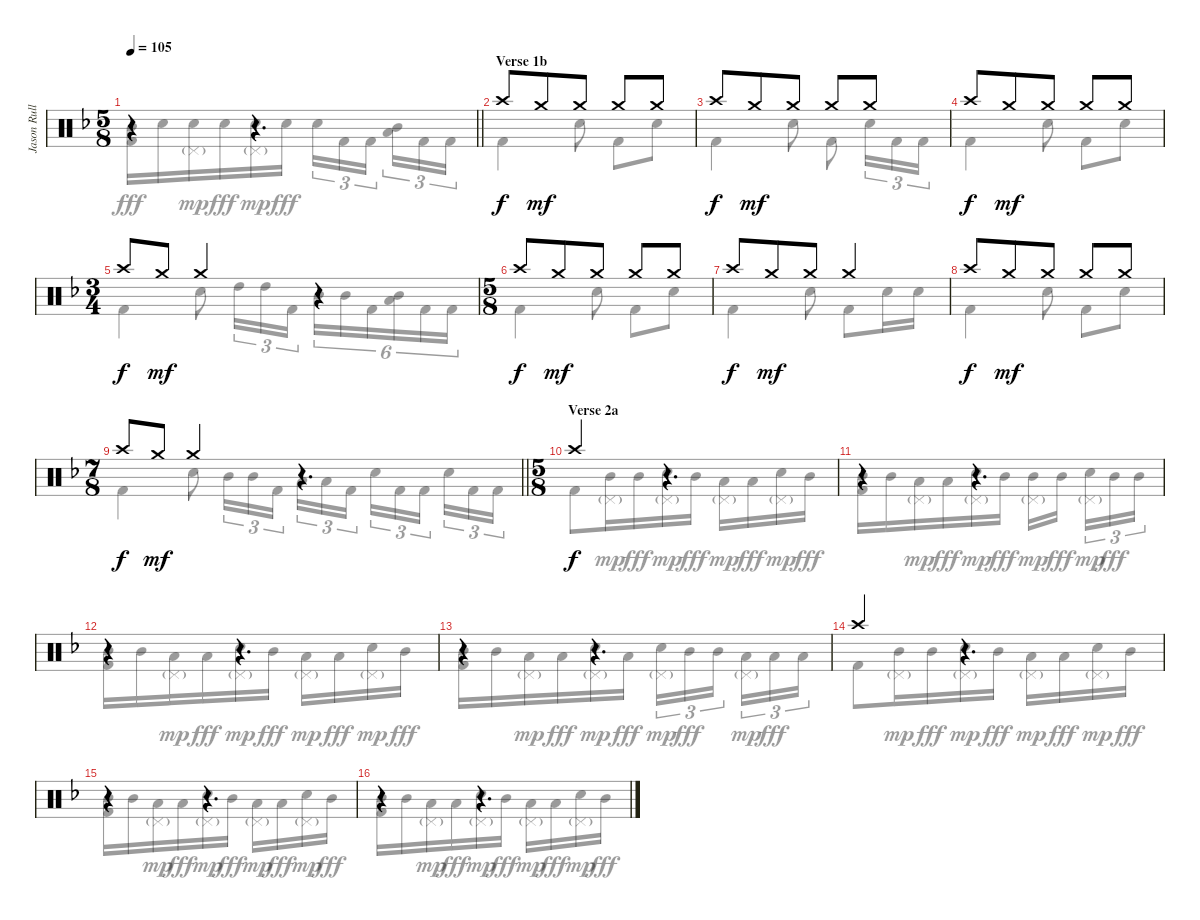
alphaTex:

\track ("Jason Rullo Drums" "Jason Rull") {instrument percussion}
\staff {score}
\articulation defaults
\voice
\ts (5 8)
\tempo 105
\clef neutral
\barLineRight lightlight
\ks dminor
r.4{dy f} r.4{d} |
\section ("" "Verse 1b")
"Crash high (hit)".8 "Crash medium (hit)".8{dy mf} "Crash medium (hit)".8 "Crash medium (hit)".8 "Crash medium (hit)".8 |
"Crash high (hit)".8{dy f} "Crash medium (hit)".8{dy mf} "Crash medium (hit)".8 "Crash medium (hit)".8 "Crash medium (hit)".8 |
"Crash high (hit)".8{dy f} "Crash medium (hit)".8{dy mf} "Crash medium (hit)".8 "Crash medium (hit)".8 "Crash medium (hit)".8 |
\ts (3 4)
"Crash high (hit)".8{dy f} "Crash medium (hit)".8{dy mf} "Crash medium (hit)".4 r.4 |
\ts (5 8)
"Crash high (hit)".8{dy f} "Crash medium (hit)".8{dy mf} "Crash medium (hit)".8 "Crash medium (hit)".8 "Crash medium (hit)".8 |
"Crash high (hit)".8{dy f} "Crash medium (hit)".8{dy mf} "Crash medium (hit)".8 "Crash medium (hit)".4 |
"Crash high (hit)".8{dy f} "Crash medium (hit)".8{dy mf} "Crash medium (hit)".8 "Crash medium (hit)".8 "Crash medium (hit)".8 |
\ts (7 8)
\barLineRight lightlight "Crash high (hit)".8{dy f} "Crash medium (hit)".8{dy mf} "Crash medium (hit)".4
r.4{d} |
\ts (5 8)
\section ("" "Verse 2a")
"Crash high (hit)".4{dy f} r.4{d} |
r.4 r.4{d} |
r.4 r.4{d} |
r.4 r.4{d} |
"Crash high (hit)".4 r.4{d} |
r.4 r.4{d} |
r.4 r.4{d}
\voice
\clef neutral
\ottava regular
\simile none
\barLineRight lightlight
\ks dminor
("Mid Tom (hit)" "Kick (hit) 2").16{dy fff} "Electric Snare (hit)".16 ("Electric Snare (hit)" "Pedal Hi-Hat (hit)"{g}).16{dy mp} "Electric Snare (hit)".16{dy fff} ("Electric Snare (hit)" "Pedal Hi-Hat (hit)"{g}).16{dy mp} "Electric Snare (hit)".16{dy fff} "Electric Snare (hit)".16{tu (3 2)} "Kick (hit) 2".16{tu (3 2)} "Kick (hit) 2".16{tu (3 2)} ("Mid Tom (hit)" "Low Tom (hit)").16{tu (3 2)} "Kick (hit) 2".16{tu (3 2)} "Kick (hit) 2".16{tu (3 2)} |
"Kick (hit) 2".4 "Electric Snare (hit)".8 "Kick (hit) 2".8 "Electric Snare (hit)".8 |
"Kick (hit) 2".4 "Electric Snare (hit)".8 "Kick (hit) 2".8 "Electric Snare (hit)".16{tu (3 2)} "Kick (hit) 2".16{tu (3 2)} "Kick (hit) 2".16{tu (3 2)} |
"Kick (hit) 2".4 "Electric Snare (hit)".8 "Kick (hit) 2".8 "Electric Snare (hit)".8 |
"Kick (hit) 2".4 "Electric Snare (hit)".8 "High Tom (hit)".16{tu (3 2)} "High Tom (hit)".16{tu (3 2)} "Kick (hit) 2".16{tu (3 2)} "Mid Tom (hit)".16{tu (6 4)} "Mid Tom (hit)".16{tu (6 4)} "Kick (hit) 2".16{tu (6 4)} ("Mid Tom (hit)" "Low Tom (hit)").16{tu (6 4)} "Kick (hit) 2".16{tu (6 4)} "Kick (hit) 2".16{tu (6 4)} |
"Kick (hit) 2".4 "Electric Snare (hit)".8 "Kick (hit) 2".8 "Electric Snare (hit)".8 |
"Kick (hit) 2".4 "Electric Snare (hit)".8 "Kick (hit) 2".8 "Electric Snare (hit)".16 "Electric Snare (hit)".16 |
"Kick (hit) 2".4 "Electric Snare (hit)".8 "Kick (hit) 2".8 "Electric Snare (hit)".8 |
\barLineRight lightlight "Kick (hit) 2".4 "Electric Snare (hit)".8 "Mid Tom (hit)".16{tu (3 2)} "Mid Tom (hit)".16{tu (3 2)} "Kick (hit) 2".16{tu (3 2)} "Low Tom (hit)".16{tu (3 2)} "Low Tom (hit)".16{tu (3 2)} "Kick (hit) 2".16{tu (3 2)} "Electric Snare (hit)".16{tu (3 2)} "Kick (hit) 2".16{tu (3 2)} "Kick (hit) 2".16{tu (3 2)} "Electric Snare (hit)".16{tu (3 2)} "Kick (hit) 2".16{tu (3 2)} "Kick (hit) 2".16{tu (3 2)}
|
"Kick (hit) 2".8 ("Mid Tom (hit)" "Pedal Hi-Hat (hit)"{g}).16{dy mp} "Mid Tom (hit)".16{dy fff} ("Electric Snare (hit)" "Pedal Hi-Hat (hit)"{g}).16{dy mp} "Mid Tom (hit)".16{dy fff} ("Low Tom (hit)" "Pedal Hi-Hat (hit)"{g}).16{dy mp} "Low Tom (hit)".16{dy fff} ("Electric Snare (hit)" "Pedal Hi-Hat (hit)"{g}).16{dy mp} "Mid Tom (hit)".16{dy fff} |
("Mid Tom (hit)" "Kick (hit) 2").16 "Mid Tom (hit)".16 ("Low Tom (hit)" "Pedal Hi-Hat (hit)"{g}).16{dy mp} "Low Tom (hit)".16{dy fff} ("Electric Snare (hit)" "Pedal Hi-Hat (hit)"{g}).16{dy mp} "Mid Tom (hit)".16{dy fff} ("Mid Tom (hit)" "Pedal Hi-Hat (hit)"{g}).16{dy mp} "Mid Tom (hit)".16{dy fff} ("Electric Snare (hit)" "Pedal Hi-Hat (hit)"{g}).16{tu (3 2) dy mp} "Mid Tom (hit)".16{tu (3 2) dy fff} "Mid Tom (hit)".16{tu (3 2)} |
("Mid Tom (hit)" "Kick (hit) 2").16 "Mid Tom (hit)".16 ("Low Tom (hit)" "Pedal Hi-Hat (hit)"{g}).16{dy mp} "Low Tom (hit)".16{dy fff} ("Electric Snare (hit)" "Pedal Hi-Hat (hit)"{g}).16{dy mp} "Mid Tom (hit)".16{dy fff} ("Low Tom (hit)" "Pedal Hi-Hat (hit)"{g}).16{dy mp} "Low Tom (hit)".16{dy fff} ("Electric Snare (hit)" "Pedal Hi-Hat (hit)"{g}).16{dy mp} "Mid Tom (hit)".16{dy fff} |
("Mid Tom (hit)" "Kick (hit) 2").16 "Mid Tom (hit)".16 ("Low Tom (hit)" "Pedal Hi-Hat (hit)"{g}).16{dy mp} "Low Tom (hit)".16{dy fff} ("Electric Snare (hit)" "Pedal Hi-Hat (hit)"{g}).16{dy mp} "Low Tom (hit)".16{dy fff} ("Electric Snare (hit)" "Pedal Hi-Hat (hit)"{g}).16{tu (3 2) dy mp} "Mid Tom (hit)".16{tu (3 2) dy fff} "Mid Tom (hit)".16{tu (3 2)} ("Low Tom (hit)" "Pedal Hi-Hat (hit)"{g}).16{tu (3 2) dy mp} "Low Tom (hit)".16{tu (3 2) dy fff} "Low Tom (hit)".16{tu (3 2)} |
"Kick (hit) 2".8 ("Mid Tom (hit)" "Pedal Hi-Hat (hit)"{g}).16{dy mp} "Mid Tom (hit)".16{dy fff} ("Electric Snare (hit)" "Pedal Hi-Hat (hit)"{g}).16{dy mp} "Mid Tom (hit)".16{dy fff} ("Low Tom (hit)" "Pedal Hi-Hat (hit)"{g}).16{dy mp} "Low Tom (hit)".16{dy fff} ("Electric Snare (hit)" "Pedal Hi-Hat (hit)"{g}).16{dy mp} "Mid Tom (hit)".16{dy fff} |
("Mid Tom (hit)" "Kick (hit) 2").16 "Mid Tom (hit)".16 ("Low Tom (hit)" "Pedal Hi-Hat (hit)"{g}).16{dy mp} "Low Tom (hit)".16{dy fff} ("Electric Snare (hit)" "Pedal Hi-Hat (hit)"{g}).16{dy mp} "Mid Tom (hit)".16{dy fff} ("Low Tom (hit)" "Pedal Hi-Hat (hit)"{g}).16{dy mp} "Low Tom (hit)".16{dy fff} ("Electric Snare (hit)" "Pedal Hi-Hat (hit)"{g}).16{dy mp} "Mid Tom (hit)".16{dy fff} |
("Mid Tom (hit)" "Kick (hit) 2").16 "Mid Tom (hit)".16 ("Low Tom (hit)" "Pedal Hi-Hat (hit)"{g}).16{dy mp} "Low Tom (hit)".16{dy fff} ("Electric Snare (hit)" "Pedal Hi-Hat (hit)"{g}).16{dy mp} "Mid Tom (hit)".16{dy fff} ("Low Tom (hit)" "Pedal Hi-Hat (hit)"{g}).16{dy mp} "Low Tom (hit)".16{dy fff} ("Electric Snare (hit)" "Pedal Hi-Hat (hit)"{g}).16{dy mp} "Mid Tom (hit)".16{dy fff}
